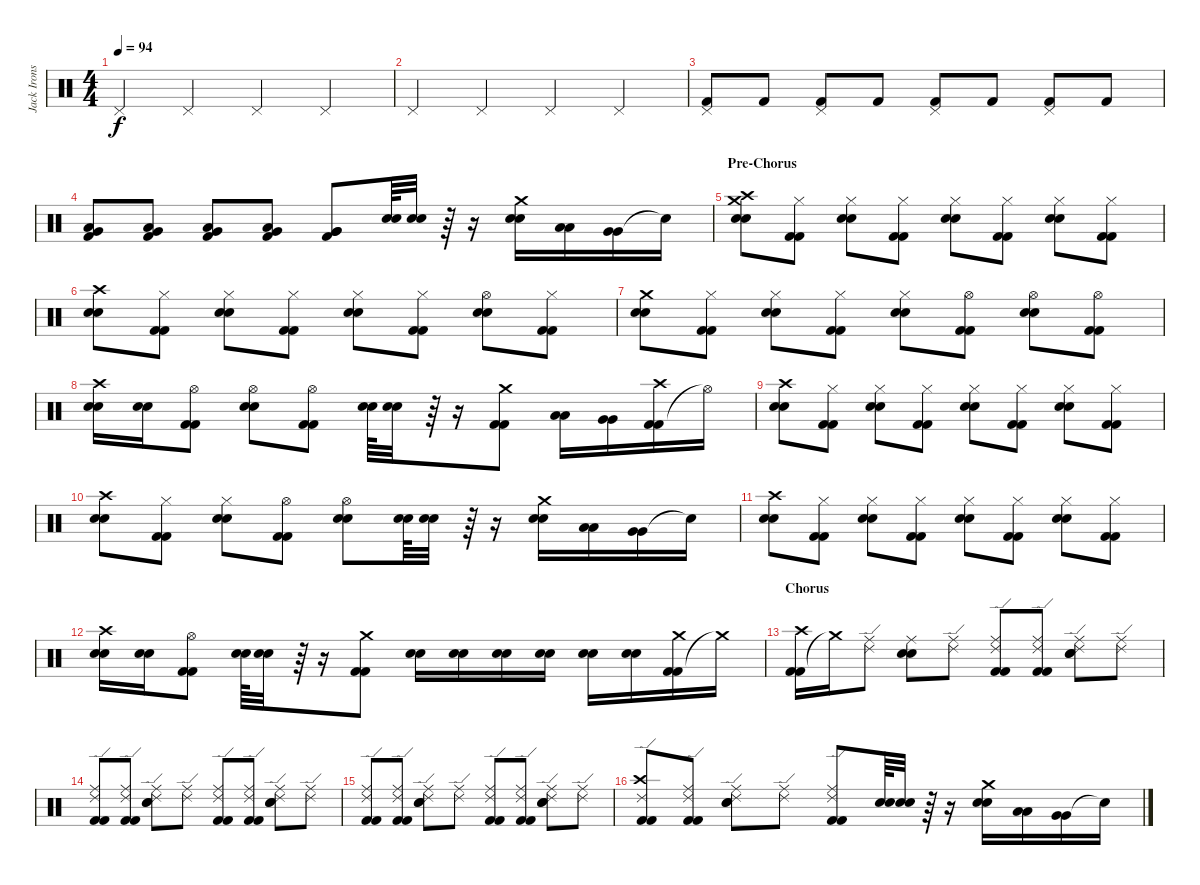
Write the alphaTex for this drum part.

\track ("Jack Irons" "Jack Irons") {instrument percussion}
\staff {score}
\articulation defaults
\ts (4 4)
\tempo 94
\clef neutral
\ks c "Pedal Hi-Hat (hit)".4{dy f} "Pedal Hi-Hat (hit)".4 "Pedal Hi-Hat (hit)".4 "Pedal Hi-Hat (hit)".4
|
"Pedal Hi-Hat (hit)".4 "Pedal Hi-Hat (hit)".4 "Pedal Hi-Hat (hit)".4 "Pedal Hi-Hat (hit)".4 |
("Kick (hit) 2" "Pedal Hi-Hat (hit)").8 "Kick (hit) 2".8 ("Kick (hit) 2" "Pedal Hi-Hat (hit)").8 "Kick (hit) 2".8 ("Kick (hit) 2" "Pedal Hi-Hat (hit)").8 "Kick (hit) 2".8 ("Kick (hit) 2" "Pedal Hi-Hat (hit)").8 "Kick (hit) 2".8 |
("Very Low Tom (hit)" "Low Tom (hit)" "Kick (hit) 2").8 ("Very Low Tom (hit)" "Low Tom (hit)" "Kick (hit) 2").8 ("Very Low Tom (hit)" "Low Tom (hit)" "Kick (hit) 2").8 ("Very Low Tom (hit)" "Low Tom (hit)" "Kick (hit) 2").8 ("Very Low Tom (hit)" "Very Low Tom (hit)" "Kick (hit) 2").8 ("Electric Snare (hit)" "Electric Snare (hit)").64 ("Electric Snare (hit)" "Electric Snare (hit)").32 r.64 r.16 ("Crash medium (hit)" "Electric Snare (hit)" "Electric Snare (hit)").16 ("Low Tom (hit)" "Low Tom (hit)").16 ("Very Low Tom (hit)" "Very Low Tom (hit)").16 "Snare (hit)"{t}.16 |
\section ("" "Pre-Chorus")
("Electric Snare (hit)" "Electric Snare (hit)" "Crash high (hit)" "Crash medium (hit)").8 ("Kick (hit) 2" "Kick (hit) 2" "Hi-Hat (closed)").8 ("Electric Snare (hit)" "Electric Snare (hit)" "Hi-Hat (closed)").8 ("Kick (hit) 2" "Kick (hit) 2" "Hi-Hat (closed)").8 ("Electric Snare (hit)" "Electric Snare (hit)" "Hi-Hat (closed)").8 ("Kick (hit) 2" "Kick (hit) 2" "Hi-Hat (closed)").8 ("Electric Snare (hit)" "Electric Snare (hit)" "Hi-Hat (closed)").8 ("Kick (hit) 2" "Kick (hit) 2" "Hi-Hat (closed)").8 |
("Electric Snare (hit)" "Electric Snare (hit)" "Crash high (hit)").8 ("Kick (hit) 2" "Kick (hit) 2" "Hi-Hat (closed)").8 ("Electric Snare (hit)" "Electric Snare (hit)" "Hi-Hat (closed)").8 ("Kick (hit) 2" "Kick (hit) 2" "Hi-Hat (closed)").8 ("Electric Snare (hit)" "Electric Snare (hit)" "Hi-Hat (closed)").8 ("Kick (hit) 2" "Kick (hit) 2" "Hi-Hat (closed)").8 ("Electric Snare (hit)" "Electric Snare (hit)" "Hi-Hat (open)").8 ("Kick (hit) 2" "Kick (hit) 2" "Hi-Hat (closed)").8 |
("Electric Snare (hit)" "Electric Snare (hit)" "Crash medium (hit)").8 ("Kick (hit) 2" "Kick (hit) 2" "Hi-Hat (closed)").8 ("Electric Snare (hit)" "Electric Snare (hit)" "Hi-Hat (closed)").8 ("Kick (hit) 2" "Kick (hit) 2" "Hi-Hat (closed)").8 ("Electric Snare (hit)" "Electric Snare (hit)" "Hi-Hat (closed)").8 ("Kick (hit) 2" "Kick (hit) 2" "Hi-Hat (open)").8 ("Electric Snare (hit)" "Electric Snare (hit)" "Hi-Hat (open)").8 ("Kick (hit) 2" "Kick (hit) 2" "Hi-Hat (open)").8 |
("Electric Snare (hit)" "Electric Snare (hit)" "Crash high (hit)").16 ("Electric Snare (hit)" "Electric Snare (hit)").16 ("Kick (hit) 2" "Kick (hit) 2" "Hi-Hat (open)").8 ("Electric Snare (hit)" "Electric Snare (hit)" "Hi-Hat (open)").8 ("Kick (hit) 2" "Kick (hit) 2" "Hi-Hat (open)").8 ("Electric Snare (hit)" "Electric Snare (hit)").64 ("Electric Snare (hit)" "Electric Snare (hit)").32 r.64 r.16 ("Crash medium (hit)" "Kick (hit) 2" "Kick (hit) 2").8 ("Low Tom (hit)" "Low Tom (hit)").16 ("Very Low Tom (hit)" "Very Low Tom (hit)").16 ("Kick (hit) 2" "Kick (hit) 2" "Crash high (hit)").16 "Hi-Hat (open)"{t}.16 |
("Electric Snare (hit)" "Electric Snare (hit)" "Crash high (hit)").8 ("Kick (hit) 2" "Kick (hit) 2" "Hi-Hat (closed)").8 ("Electric Snare (hit)" "Electric Snare (hit)" "Hi-Hat (closed)").8 ("Kick (hit) 2" "Kick (hit) 2" "Hi-Hat (closed)").8 ("Electric Snare (hit)" "Electric Snare (hit)" "Hi-Hat (closed)").8 ("Kick (hit) 2" "Kick (hit) 2" "Hi-Hat (closed)").8 ("Electric Snare (hit)" "Electric Snare (hit)" "Hi-Hat (closed)").8 ("Kick (hit) 2" "Kick (hit) 2" "Hi-Hat (closed)").8 |
("Electric Snare (hit)" "Electric Snare (hit)" "Crash high (hit)").8 ("Kick (hit) 2" "Kick (hit) 2" "Hi-Hat (closed)").8 ("Electric Snare (hit)" "Electric Snare (hit)" "Hi-Hat (closed)").8 ("Kick (hit) 2" "Kick (hit) 2" "Hi-Hat (open)").8 ("Electric Snare (hit)" "Electric Snare (hit)" "Hi-Hat (open)").8 ("Electric Snare (hit)" "Electric Snare (hit)").64 ("Electric Snare (hit)" "Electric Snare (hit)").32 r.64 r.16 ("Crash medium (hit)" "Electric Snare (hit)" "Electric Snare (hit)").16 ("Low Tom (hit)" "Low Tom (hit)").16 ("Very Low Tom (hit)" "Very Low Tom (hit)").16 "Snare (hit)"{t}.16 |
("Electric Snare (hit)" "Electric Snare (hit)" "Crash high (hit)").8 ("Kick (hit) 2" "Kick (hit) 2" "Hi-Hat (closed)").8 ("Electric Snare (hit)" "Electric Snare (hit)" "Hi-Hat (closed)").8 ("Kick (hit) 2" "Kick (hit) 2" "Hi-Hat (closed)").8 ("Electric Snare (hit)" "Electric Snare (hit)" "Hi-Hat (closed)").8 ("Kick (hit) 2" "Kick (hit) 2" "Hi-Hat (closed)").8 ("Electric Snare (hit)" "Electric Snare (hit)" "Hi-Hat (closed)").8 ("Kick (hit) 2" "Kick (hit) 2" "Hi-Hat (closed)").8 |
("Electric Snare (hit)" "Electric Snare (hit)" "Crash high (hit)").16 ("Electric Snare (hit)" "Electric Snare (hit)").16 ("Kick (hit) 2" "Kick (hit) 2" "Hi-Hat (open)").8 ("Electric Snare (hit)" "Electric Snare (hit)").64 ("Electric Snare (hit)" "Electric Snare (hit)").32 r.64 r.16 ("Crash medium (hit)" "Kick (hit) 2" "Kick (hit) 2").8 ("Electric Snare (hit)" "Electric Snare (hit)").16 ("Electric Snare (hit)" "Electric Snare (hit)").16 ("Electric Snare (hit)" "Electric Snare (hit)").16 ("Electric Snare (hit)" "Electric Snare (hit)").16 ("Electric Snare (hit)" "Electric Snare (hit)").16 ("Electric Snare (hit)" "Electric Snare (hit)").16 ("Kick (hit) 2" "Kick (hit) 2" "Crash medium (hit)").16 "Crash medium (hit)"{t}.16 |
\section ("" "Chorus")
("Kick (hit) 2" "Kick (hit) 2" "Crash high (hit)").16 "Crash medium (hit)"{t}.16 ("Ride (middle)" "Ride (edge) 2").8 ("Electric Snare (hit)" "Electric Snare (hit)" "Ride (middle)").8 ("Ride (middle)" "Ride (edge) 2").8 ("Kick (hit) 2" "Kick (hit) 2" "Ride (middle)" "Ride (edge) 2").8 ("Kick (hit) 2" "Kick (hit) 2" "Ride (middle)" "Ride (edge) 2").8 ("Electric Snare (hit)" "Electric Snare (hit)" "Ride (middle)" "Ride (edge) 2").8 ("Ride (middle)" "Ride (edge) 2").8 |
("Kick (hit) 2" "Kick (hit) 2" "Ride (middle)" "Ride (edge) 2").8 ("Kick (hit) 2" "Kick (hit) 2" "Ride (middle)" "Ride (edge) 2").8 ("Electric Snare (hit)" "Electric Snare (hit)" "Ride (middle)" "Ride (edge) 2").8 ("Ride (middle)" "Ride (edge) 2").8 ("Kick (hit) 2" "Kick (hit) 2" "Ride (middle)" "Ride (edge) 2").8 ("Kick (hit) 2" "Kick (hit) 2" "Ride (middle)" "Ride (edge) 2").8 ("Electric Snare (hit)" "Electric Snare (hit)" "Ride (middle)" "Ride (edge) 2").8 ("Ride (middle)" "Ride (edge) 2").8 |
("Kick (hit) 2" "Kick (hit) 2" "Ride (middle)" "Ride (edge) 2").8 ("Kick (hit) 2" "Kick (hit) 2" "Ride (middle)" "Ride (edge) 2").8 ("Electric Snare (hit)" "Electric Snare (hit)" "Ride (middle)" "Ride (edge) 2").8 ("Ride (middle)" "Ride (edge) 2").8 ("Kick (hit) 2" "Kick (hit) 2" "Ride (middle)" "Ride (edge) 2").8 ("Kick (hit) 2" "Kick (hit) 2" "Ride (middle)" "Ride (edge) 2").8 ("Electric Snare (hit)" "Electric Snare (hit)" "Ride (middle)" "Ride (edge) 2").8 ("Ride (middle)" "Ride (edge) 2").8 |
("Kick (hit) 2" "Kick (hit) 2" "Crash high (hit)" "Ride (edge) 2").8 ("Kick (hit) 2" "Kick (hit) 2" "Ride (middle)" "Ride (edge) 2").8 ("Electric Snare (hit)" "Electric Snare (hit)" "Ride (middle)" "Ride (edge) 2").8 ("Ride (middle)" "Ride (edge) 2").8 ("Kick (hit) 2" "Kick (hit) 2" "Ride (middle)" "Ride (edge) 2").8 ("Electric Snare (hit)" "Electric Snare (hit)").64 ("Electric Snare (hit)" "Electric Snare (hit)").32 r.64 r.16 ("Electric Snare (hit)" "Electric Snare (hit)" "Crash medium (hit)").16 ("Low Tom (hit)" "Low Tom (hit)").16 ("Very Low Tom (hit)" "Very Low Tom (hit)").16 "Snare (hit)"{t}.16
